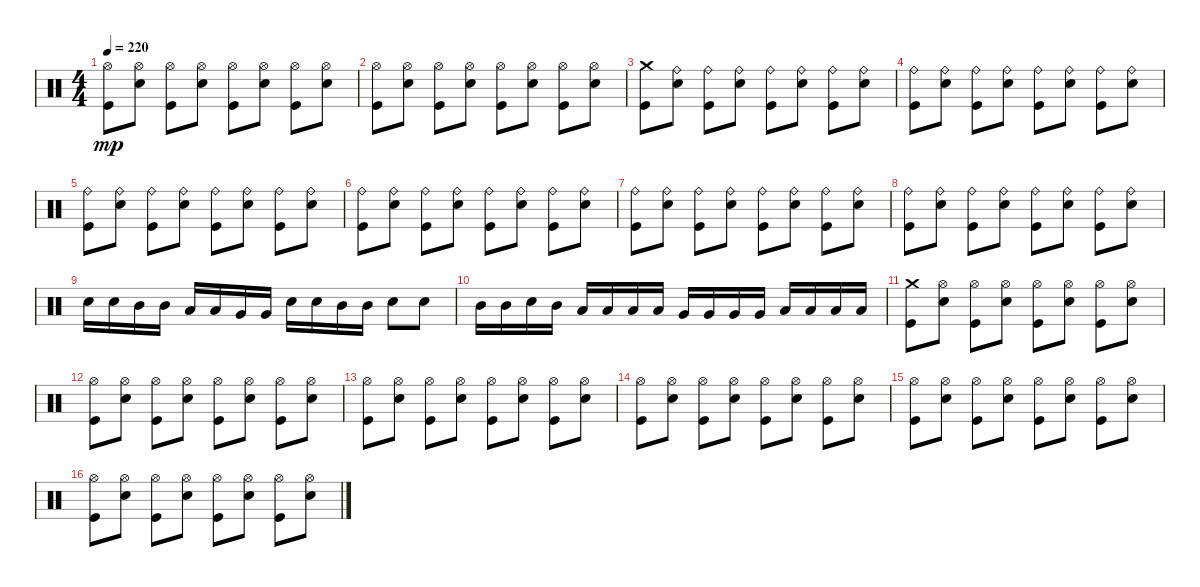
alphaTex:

\track "" {instrument percussion}
\staff {score}
\articulation defaults
\ts (4 4)
\tempo 220
\clef neutral
\ks c
("Kick (hit)" "Hi-Hat (open)").8{dy mp} ("Electric Snare (hit)" "Hi-Hat (open)").8 ("Kick (hit)" "Hi-Hat (open)").8 ("Electric Snare (hit)" "Hi-Hat (open)").8 ("Kick (hit)" "Hi-Hat (open)").8 ("Electric Snare (hit)" "Hi-Hat (open)").8 ("Kick (hit)" "Hi-Hat (open)").8 ("Electric Snare (hit)" "Hi-Hat (open)").8 |
("Kick (hit)" "Hi-Hat (open)").8 ("Electric Snare (hit)" "Hi-Hat (open)").8 ("Kick (hit)" "Hi-Hat (open)").8 ("Electric Snare (hit)" "Hi-Hat (open)").8 ("Kick (hit)" "Hi-Hat (open)").8 ("Electric Snare (hit)" "Hi-Hat (open)").8 ("Kick (hit)" "Hi-Hat (open)").8 ("Electric Snare (hit)" "Hi-Hat (open)").8 |
("Kick (hit)" "Crash medium (hit)").8 ("Electric Snare (hit)" "Ride (bell)").8 ("Kick (hit)" "Ride (bell)").8 ("Electric Snare (hit)" "Ride (bell)").8 ("Kick (hit)" "Ride (bell)").8 ("Electric Snare (hit)" "Ride (bell)").8 ("Kick (hit)" "Ride (bell)").8 ("Electric Snare (hit)" "Ride (bell)").8 |
("Kick (hit)" "Ride (bell)").8 ("Electric Snare (hit)" "Ride (bell)").8 ("Kick (hit)" "Ride (bell)").8 ("Electric Snare (hit)" "Ride (bell)").8 ("Kick (hit)" "Ride (bell)").8 ("Electric Snare (hit)" "Ride (bell)").8 ("Kick (hit)" "Ride (bell)").8 ("Electric Snare (hit)" "Ride (bell)").8 |
("Kick (hit)" "Ride (bell)").8 ("Electric Snare (hit)" "Ride (bell)").8 ("Kick (hit)" "Ride (bell)").8 ("Electric Snare (hit)" "Ride (bell)").8 ("Kick (hit)" "Ride (bell)").8 ("Electric Snare (hit)" "Ride (bell)").8 ("Kick (hit)" "Ride (bell)").8 ("Electric Snare (hit)" "Ride (bell)").8 |
("Kick (hit)" "Ride (bell)").8 ("Electric Snare (hit)" "Ride (bell)").8 ("Kick (hit)" "Ride (bell)").8 ("Electric Snare (hit)" "Ride (bell)").8 ("Kick (hit)" "Ride (bell)").8 ("Electric Snare (hit)" "Ride (bell)").8 ("Kick (hit)" "Ride (bell)").8 ("Electric Snare (hit)" "Ride (bell)").8 |
("Kick (hit)" "Ride (bell)").8 ("Electric Snare (hit)" "Ride (bell)").8 ("Kick (hit)" "Ride (bell)").8 ("Electric Snare (hit)" "Ride (bell)").8 ("Kick (hit)" "Ride (bell)").8 ("Electric Snare (hit)" "Ride (bell)").8 ("Kick (hit)" "Ride (bell)").8 ("Electric Snare (hit)" "Ride (bell)").8 |
("Kick (hit)" "Ride (bell)").8 ("Electric Snare (hit)" "Ride (bell)").8 ("Kick (hit)" "Ride (bell)").8 ("Electric Snare (hit)" "Ride (bell)").8 ("Kick (hit)" "Ride (bell)").8 ("Electric Snare (hit)" "Ride (bell)").8 ("Kick (hit)" "Ride (bell)").8 ("Electric Snare (hit)" "Ride (bell)").8 |
"Electric Snare (hit)".16 "Electric Snare (hit)".16 "Mid Tom (hit)".16 "Mid Tom (hit)".16 "Low Tom (hit)".16 "Low Tom (hit)".16 "Very Low Tom (hit)".16 "Very Low Tom (hit)".16 "Electric Snare (hit)".16 "Electric Snare (hit)".16 "Mid Tom (hit)".16 "Mid Tom (hit)".16 "Electric Snare (hit)".8 "Electric Snare (hit)".8 |
"Mid Tom (hit)".16 "Mid Tom (hit)".16 "Electric Snare (hit)".16 "Mid Tom (hit)".16 "Low Tom (hit)".16 "Low Tom (hit)".16 "Low Tom (hit)".16 "Low Tom (hit)".16 "Very Low Tom (hit)".16 "Very Low Tom (hit)".16 "Very Low Tom (hit)".16 "Very Low Tom (hit)".16 "Low Floor Tom (hit)".16 "Low Floor Tom (hit)".16 "Low Floor Tom (hit)".16 "Low Floor Tom (hit)".16 |
("Kick (hit)" "Crash medium (hit)").8 ("Electric Snare (hit)" "Hi-Hat (open)").8 ("Kick (hit)" "Hi-Hat (open)").8 ("Electric Snare (hit)" "Hi-Hat (open)").8 ("Kick (hit)" "Hi-Hat (open)").8 ("Electric Snare (hit)" "Hi-Hat (open)").8 ("Kick (hit)" "Hi-Hat (open)").8 ("Electric Snare (hit)" "Hi-Hat (open)").8 |
("Kick (hit)" "Hi-Hat (open)").8 ("Electric Snare (hit)" "Hi-Hat (open)").8 ("Kick (hit)" "Hi-Hat (open)").8 ("Electric Snare (hit)" "Hi-Hat (open)").8 ("Kick (hit)" "Hi-Hat (open)").8 ("Electric Snare (hit)" "Hi-Hat (open)").8 ("Kick (hit)" "Hi-Hat (open)").8 ("Electric Snare (hit)" "Hi-Hat (open)").8 |
("Kick (hit)" "Hi-Hat (open)").8 ("Electric Snare (hit)" "Hi-Hat (open)").8 ("Kick (hit)" "Hi-Hat (open)").8 ("Electric Snare (hit)" "Hi-Hat (open)").8 ("Kick (hit)" "Hi-Hat (open)").8 ("Electric Snare (hit)" "Hi-Hat (open)").8 ("Kick (hit)" "Hi-Hat (open)").8 ("Electric Snare (hit)" "Hi-Hat (open)").8 |
("Kick (hit)" "Hi-Hat (open)").8 ("Electric Snare (hit)" "Hi-Hat (open)").8 ("Kick (hit)" "Hi-Hat (open)").8 ("Electric Snare (hit)" "Hi-Hat (open)").8 ("Kick (hit)" "Hi-Hat (open)").8 ("Electric Snare (hit)" "Hi-Hat (open)").8 ("Kick (hit)" "Hi-Hat (open)").8 ("Electric Snare (hit)" "Hi-Hat (open)").8 |
("Kick (hit)" "Hi-Hat (open)").8 ("Electric Snare (hit)" "Hi-Hat (open)").8 ("Kick (hit)" "Hi-Hat (open)").8 ("Electric Snare (hit)" "Hi-Hat (open)").8 ("Kick (hit)" "Hi-Hat (open)").8 ("Electric Snare (hit)" "Hi-Hat (open)").8 ("Kick (hit)" "Hi-Hat (open)").8 ("Electric Snare (hit)" "Hi-Hat (open)").8 |
("Kick (hit)" "Hi-Hat (open)").8 ("Electric Snare (hit)" "Hi-Hat (open)").8 ("Kick (hit)" "Hi-Hat (open)").8 ("Electric Snare (hit)" "Hi-Hat (open)").8 ("Kick (hit)" "Hi-Hat (open)").8 ("Electric Snare (hit)" "Hi-Hat (open)").8 ("Kick (hit)" "Hi-Hat (open)").8 ("Electric Snare (hit)" "Hi-Hat (open)").8
